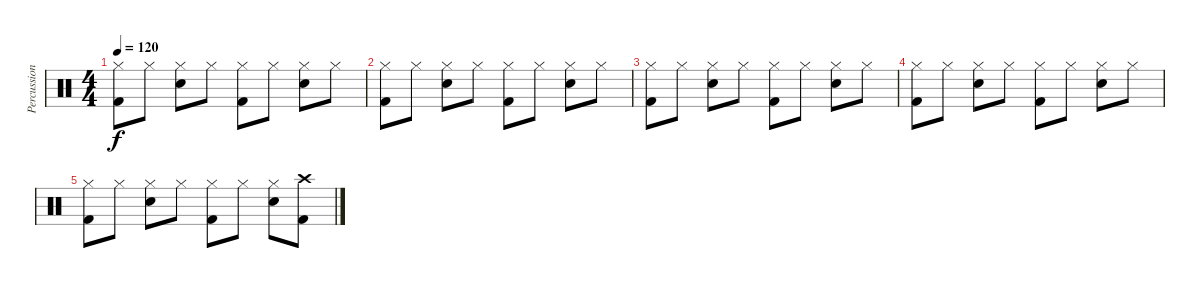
\track ("Percussion" "Percussion") {instrument percussion}
\staff {score}
\articulation defaults
\ts (4 4)
\tempo 120
\clef neutral
\ks c
("Hi-Hat (closed)" "Kick (hit) 2").8{dy f} "Hi-Hat (closed)".8 ("Hi-Hat (closed)" "Electric Snare (hit)").8 "Hi-Hat (closed)".8 ("Hi-Hat (closed)" "Kick (hit) 2").8 "Hi-Hat (closed)".8 ("Hi-Hat (closed)" "Electric Snare (hit)").8 "Hi-Hat (closed)".8 |
("Hi-Hat (closed)" "Kick (hit) 2").8 "Hi-Hat (closed)".8 ("Hi-Hat (closed)" "Electric Snare (hit)").8 "Hi-Hat (closed)".8 ("Hi-Hat (closed)" "Kick (hit) 2").8 "Hi-Hat (closed)".8 ("Hi-Hat (closed)" "Electric Snare (hit)").8 "Hi-Hat (closed)".8 |
("Hi-Hat (closed)" "Kick (hit) 2").8 "Hi-Hat (closed)".8 ("Hi-Hat (closed)" "Electric Snare (hit)").8 "Hi-Hat (closed)".8 ("Hi-Hat (closed)" "Kick (hit) 2").8 "Hi-Hat (closed)".8 ("Hi-Hat (closed)" "Electric Snare (hit)").8 "Hi-Hat (closed)".8 |
("Hi-Hat (closed)" "Kick (hit) 2").8 "Hi-Hat (closed)".8 ("Hi-Hat (closed)" "Electric Snare (hit)").8 "Hi-Hat (closed)".8 ("Hi-Hat (closed)" "Kick (hit) 2").8 "Hi-Hat (closed)".8 ("Hi-Hat (closed)" "Electric Snare (hit)").8 "Hi-Hat (closed)".8 |
("Hi-Hat (closed)" "Kick (hit) 2").8 "Hi-Hat (closed)".8 ("Hi-Hat (closed)" "Electric Snare (hit)").8 "Hi-Hat (closed)".8 ("Hi-Hat (closed)" "Kick (hit) 2").8 "Hi-Hat (closed)".8 ("Hi-Hat (closed)" "Electric Snare (hit)").8 ("Crash high (hit)" "Kick (hit) 2").8
